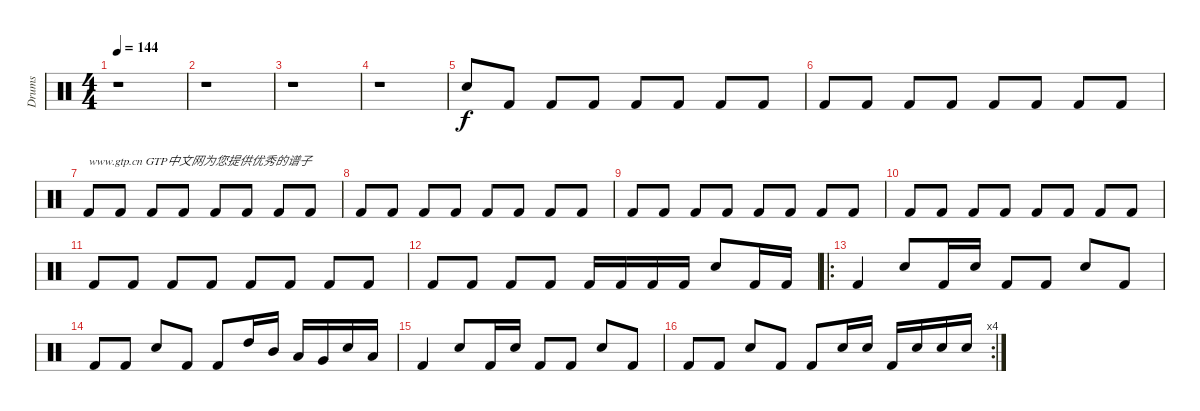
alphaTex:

\track ("Drums" "Drums") {instrument percussion}
\staff {score}
\articulation defaults
\ts (4 4)
\tempo 144
\clef neutral
\ks c
r.1{dy f} |
r.1 |
r.1 |
r.1 |
"Electric Snare (hit)".8 "Kick (hit) 2".8 "Kick (hit) 2".8 "Kick (hit) 2".8 "Kick (hit) 2".8 "Kick (hit) 2".8 "Kick (hit) 2".8 "Kick (hit) 2".8 |
"Kick (hit) 2".8 "Kick (hit) 2".8 "Kick (hit) 2".8 "Kick (hit) 2".8 "Kick (hit) 2".8 "Kick (hit) 2".8 "Kick (hit) 2".8 "Kick (hit) 2".8 |
"Kick (hit) 2".8{txt "www.gtp.cn GTP中文网为您提供优秀的谱子"} "Kick (hit) 2".8 "Kick (hit) 2".8 "Kick (hit) 2".8 "Kick (hit) 2".8 "Kick (hit) 2".8 "Kick (hit) 2".8 "Kick (hit) 2".8 |
"Kick (hit) 2".8 "Kick (hit) 2".8 "Kick (hit) 2".8 "Kick (hit) 2".8 "Kick (hit) 2".8 "Kick (hit) 2".8 "Kick (hit) 2".8 "Kick (hit) 2".8 |
"Kick (hit) 2".8 "Kick (hit) 2".8 "Kick (hit) 2".8 "Kick (hit) 2".8 "Kick (hit) 2".8 "Kick (hit) 2".8 "Kick (hit) 2".8 "Kick (hit) 2".8 |
"Kick (hit) 2".8 "Kick (hit) 2".8 "Kick (hit) 2".8 "Kick (hit) 2".8 "Kick (hit) 2".8 "Kick (hit) 2".8 "Kick (hit) 2".8 "Kick (hit) 2".8 |
"Kick (hit) 2".8 "Kick (hit) 2".8 "Kick (hit) 2".8 "Kick (hit) 2".8 "Kick (hit) 2".8 "Kick (hit) 2".8 "Kick (hit) 2".8 "Kick (hit) 2".8 |
"Kick (hit) 2".8 "Kick (hit) 2".8 "Kick (hit) 2".8 "Kick (hit) 2".8 "Kick (hit) 2".16 "Kick (hit) 2".16 "Kick (hit) 2".16 "Kick (hit) 2".16 "Electric Snare (hit)".8 "Kick (hit) 2".16 "Kick (hit) 2".16 |
\ro "Kick (hit) 2".4 "Electric Snare (hit)".8 "Kick (hit) 2".16 "Electric Snare (hit)".16 "Kick (hit) 2".8 "Kick (hit) 2".8 "Electric Snare (hit)".8 "Kick (hit) 2".8
|
"Kick (hit) 2".8 "Kick (hit) 2".8 "Electric Snare (hit)".8 "Kick (hit) 2".8 "Kick (hit) 2".8 "High Tom (hit)".16 "Mid Tom (hit)".16 "Low Tom (hit)".16 "Very Low Tom (hit)".16 "Electric Snare (hit)".16 "Low Floor Tom (hit)".16 |
"Kick (hit) 2".4 "Electric Snare (hit)".8 "Kick (hit) 2".16 "Electric Snare (hit)".16 "Kick (hit) 2".8 "Kick (hit) 2".8 "Electric Snare (hit)".8 "Kick (hit) 2".8 |
\rc 4 "Kick (hit) 2".8 "Kick (hit) 2".8 "Electric Snare (hit)".8 "Kick (hit) 2".8 "Kick (hit) 2".8 "Electric Snare (hit)".16 "Electric Snare (hit)".16 "Kick (hit) 2".16 "Electric Snare (hit)".16 "Electric Snare (hit)".16 "Electric Snare (hit)".16
